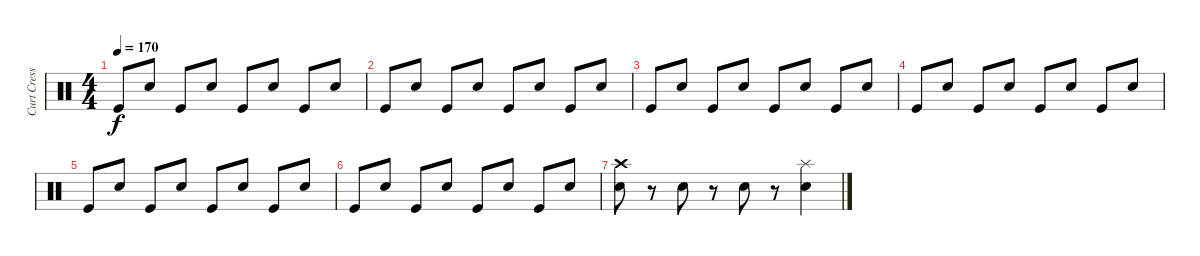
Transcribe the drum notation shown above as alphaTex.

\track ("Curt Cress" "Curt Cress") {instrument percussion}
\staff {score}
\articulation defaults
\ts (4 4)
\tempo 170
\clef neutral
\ks c "Kick (hit)".8{dy f} "Snare (hit) 2".8 "Kick (hit)".8 "Snare (hit) 2".8 "Kick (hit)".8 "Snare (hit) 2".8 "Kick (hit)".8 "Snare (hit) 2".8
|
"Kick (hit)".8 "Snare (hit) 2".8 "Kick (hit)".8 "Snare (hit) 2".8 "Kick (hit)".8 "Snare (hit) 2".8 "Kick (hit)".8 "Snare (hit) 2".8 |
"Kick (hit)".8 "Snare (hit) 2".8 "Kick (hit)".8 "Snare (hit) 2".8 "Kick (hit)".8 "Snare (hit) 2".8 "Kick (hit)".8 "Snare (hit) 2".8 |
"Kick (hit)".8 "Snare (hit) 2".8 "Kick (hit)".8 "Snare (hit) 2".8 "Kick (hit)".8 "Snare (hit) 2".8 "Kick (hit)".8 "Snare (hit) 2".8 |
"Kick (hit)".8 "Snare (hit) 2".8 "Kick (hit)".8 "Snare (hit) 2".8 "Kick (hit)".8 "Snare (hit) 2".8 "Kick (hit)".8 "Snare (hit) 2".8 |
"Kick (hit)".8 "Snare (hit) 2".8 "Kick (hit)".8 "Snare (hit) 2".8 "Kick (hit)".8 "Snare (hit) 2".8 "Kick (hit)".8 "Snare (hit) 2".8 |
("Snare (hit) 2" "Crash high (hit)").8 r.8 "Snare (hit) 2".8 r.8 "Snare (hit) 2".8 r.8 ("Snare (hit) 2" "Splash (hit)").4
